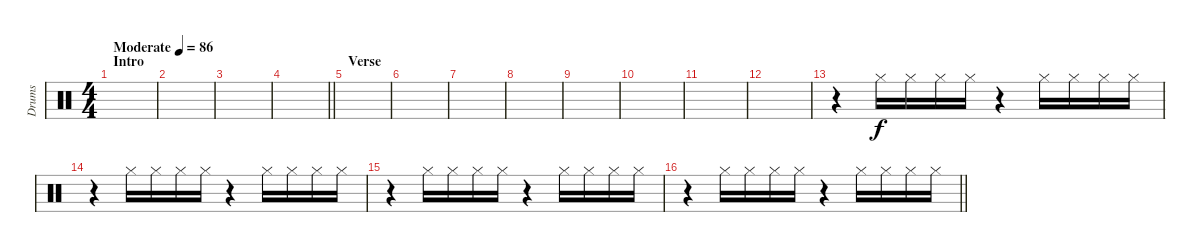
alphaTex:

\track ("Drums" "Drums") {instrument percussion}
\staff {score}
\articulation defaults
\ts (4 4)
\section ("" "Intro")
\tempo (86 "Moderate")
\clef neutral
\ks c
|
|
|
\barLineRight lightlight
|
\section ("" "Verse")
|
|
|
|
|
|
|
|
r.4 "Hi-Hat (closed)".16 "Hi-Hat (closed)".16 "Hi-Hat (closed)".16 "Hi-Hat (closed)".16 r.4 "Hi-Hat (closed)".16 "Hi-Hat (closed)".16 "Hi-Hat (closed)".16 "Hi-Hat (closed)".16 |
r.4 "Hi-Hat (closed)".16 "Hi-Hat (closed)".16 "Hi-Hat (closed)".16 "Hi-Hat (closed)".16 r.4 "Hi-Hat (closed)".16 "Hi-Hat (closed)".16 "Hi-Hat (closed)".16 "Hi-Hat (closed)".16 |
r.4 "Hi-Hat (closed)".16 "Hi-Hat (closed)".16 "Hi-Hat (closed)".16 "Hi-Hat (closed)".16 r.4 "Hi-Hat (closed)".16 "Hi-Hat (closed)".16 "Hi-Hat (closed)".16 "Hi-Hat (closed)".16 |
\barLineRight lightlight
r.4 "Hi-Hat (closed)".16 "Hi-Hat (closed)".16 "Hi-Hat (closed)".16 "Hi-Hat (closed)".16 r.4 "Hi-Hat (closed)".16 "Hi-Hat (closed)".16 "Hi-Hat (closed)".16 "Hi-Hat (closed)".16
